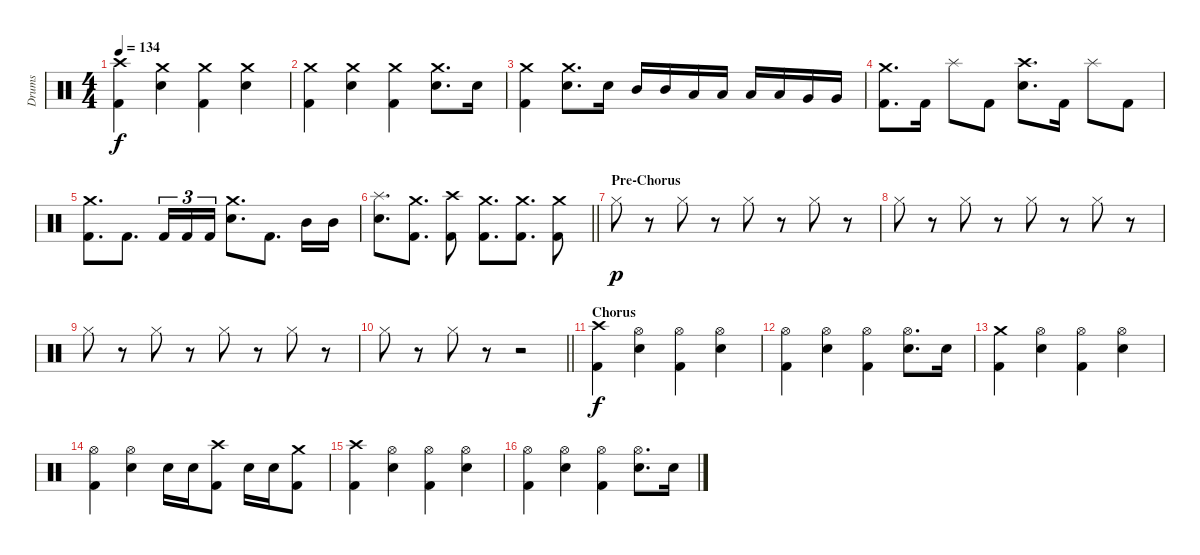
\track ("Drums" "Drums") {instrument percussion}
\staff {score}
\articulation defaults
\ts (4 4)
\tempo 134
\clef neutral
\ks c
("Crash high (hit)" "Kick (hit) 2").4{dy f} ("Crash medium (hit)" "Snare (hit) 2").4 ("Crash medium (hit)" "Kick (hit) 2").4 ("Crash medium (hit)" "Snare (hit) 2").4 |
("Crash medium (hit)" "Kick (hit) 2").4 ("Crash medium (hit)" "Snare (hit) 2").4 ("Crash medium (hit)" "Kick (hit) 2").4 ("Crash medium (hit)" "Snare (hit) 2").8{d} "Snare (hit) 2".16 |
("Crash medium (hit)" "Kick (hit) 2").4 ("Crash medium (hit)" "Snare (hit) 2").8{d} "Snare (hit) 2".16 "Mid Tom (hit)".16 "Mid Tom (hit)".16 "Low Tom (hit)".16 "Low Tom (hit)".16 "Low Tom (hit)".16 "Low Tom (hit)".16 "Very Low Tom (hit)".16 "Very Low Tom (hit)".16 |
("Crash medium (hit)" "Kick (hit) 2").8{d} "Kick (hit) 2".16 "Splash (hit)".8 "Kick (hit) 2".8 ("Crash high (hit)" "Snare (hit) 2").8{d} "Kick (hit) 2".16 "Splash (hit)".8 "Kick (hit) 2".8 |
("Crash medium (hit)" "Kick (hit) 2").8{d} "Kick (hit) 2".8{d} "Kick (hit) 2".16{tu (3 2)} "Kick (hit) 2".16{tu (3 2)} "Kick (hit) 2".16{tu (3 2)} ("Crash medium (hit)" "Snare (hit) 2").8{d} "Kick (hit) 2".8{d} "Mid Tom (hit)".16 "Mid Tom (hit)".16 |
\barLineRight lightlight
("Splash (hit)" "Snare (hit) 2").8{d} ("Crash medium (hit)" "Kick (hit) 2").8{d} ("Crash high (hit)" "Kick (hit) 2").8 ("Crash medium (hit)" "Kick (hit) 2").8{d} ("Crash medium (hit)" "Kick (hit) 2").8{d} ("Crash medium (hit)" "Kick (hit) 2").8 |
\section ("" "Pre-Chorus")
"Hi-Hat (closed)".8{dy p} r.8 "Hi-Hat (closed)".8 r.8 "Hi-Hat (closed)".8 r.8 "Hi-Hat (closed)".8 r.8 |
"Hi-Hat (closed)".8 r.8 "Hi-Hat (closed)".8 r.8 "Hi-Hat (closed)".8 r.8 "Hi-Hat (closed)".8 r.8 |
"Hi-Hat (closed)".8 r.8 "Hi-Hat (closed)".8 r.8 "Hi-Hat (closed)".8 r.8 "Hi-Hat (closed)".8 r.8 |
\barLineRight lightlight "Hi-Hat (closed)".8
r.8 "Hi-Hat (closed)".8 r.8 r.2 |
\section ("" "Chorus")
("Crash high (hit)" "Kick (hit) 2").4{dy f} ("Hi-Hat (open)" "Snare (hit) 2").4 ("Hi-Hat (open)" "Kick (hit) 2").4 ("Hi-Hat (open)" "Snare (hit) 2").4 |
("Hi-Hat (open)" "Kick (hit) 2").4 ("Hi-Hat (open)" "Snare (hit) 2").4 ("Hi-Hat (open)" "Kick (hit) 2").4 ("Hi-Hat (open)" "Snare (hit) 2").8{d} "Snare (hit) 2".16 |
("Crash medium (hit)" "Kick (hit) 2").4 ("Hi-Hat (open)" "Snare (hit) 2").4 ("Hi-Hat (open)" "Kick (hit) 2").4 ("Hi-Hat (open)" "Snare (hit) 2").4 |
("Hi-Hat (open)" "Kick (hit) 2").4 ("Hi-Hat (open)" "Snare (hit) 2").4 "Snare (hit) 2".16 "Snare (hit) 2".16 ("Crash high (hit)" "Kick (hit) 2").8 "Snare (hit) 2".16 "Snare (hit) 2".16 ("Crash medium (hit)" "Kick (hit) 2").8 |
("Crash high (hit)" "Kick (hit) 2").4 ("Hi-Hat (open)" "Snare (hit) 2").4 ("Hi-Hat (open)" "Kick (hit) 2").4 ("Hi-Hat (open)" "Snare (hit) 2").4 |
("Hi-Hat (open)" "Kick (hit) 2").4 ("Hi-Hat (open)" "Snare (hit) 2").4 ("Hi-Hat (open)" "Kick (hit) 2").4 ("Hi-Hat (open)" "Snare (hit) 2").8{d} "Snare (hit) 2".16
